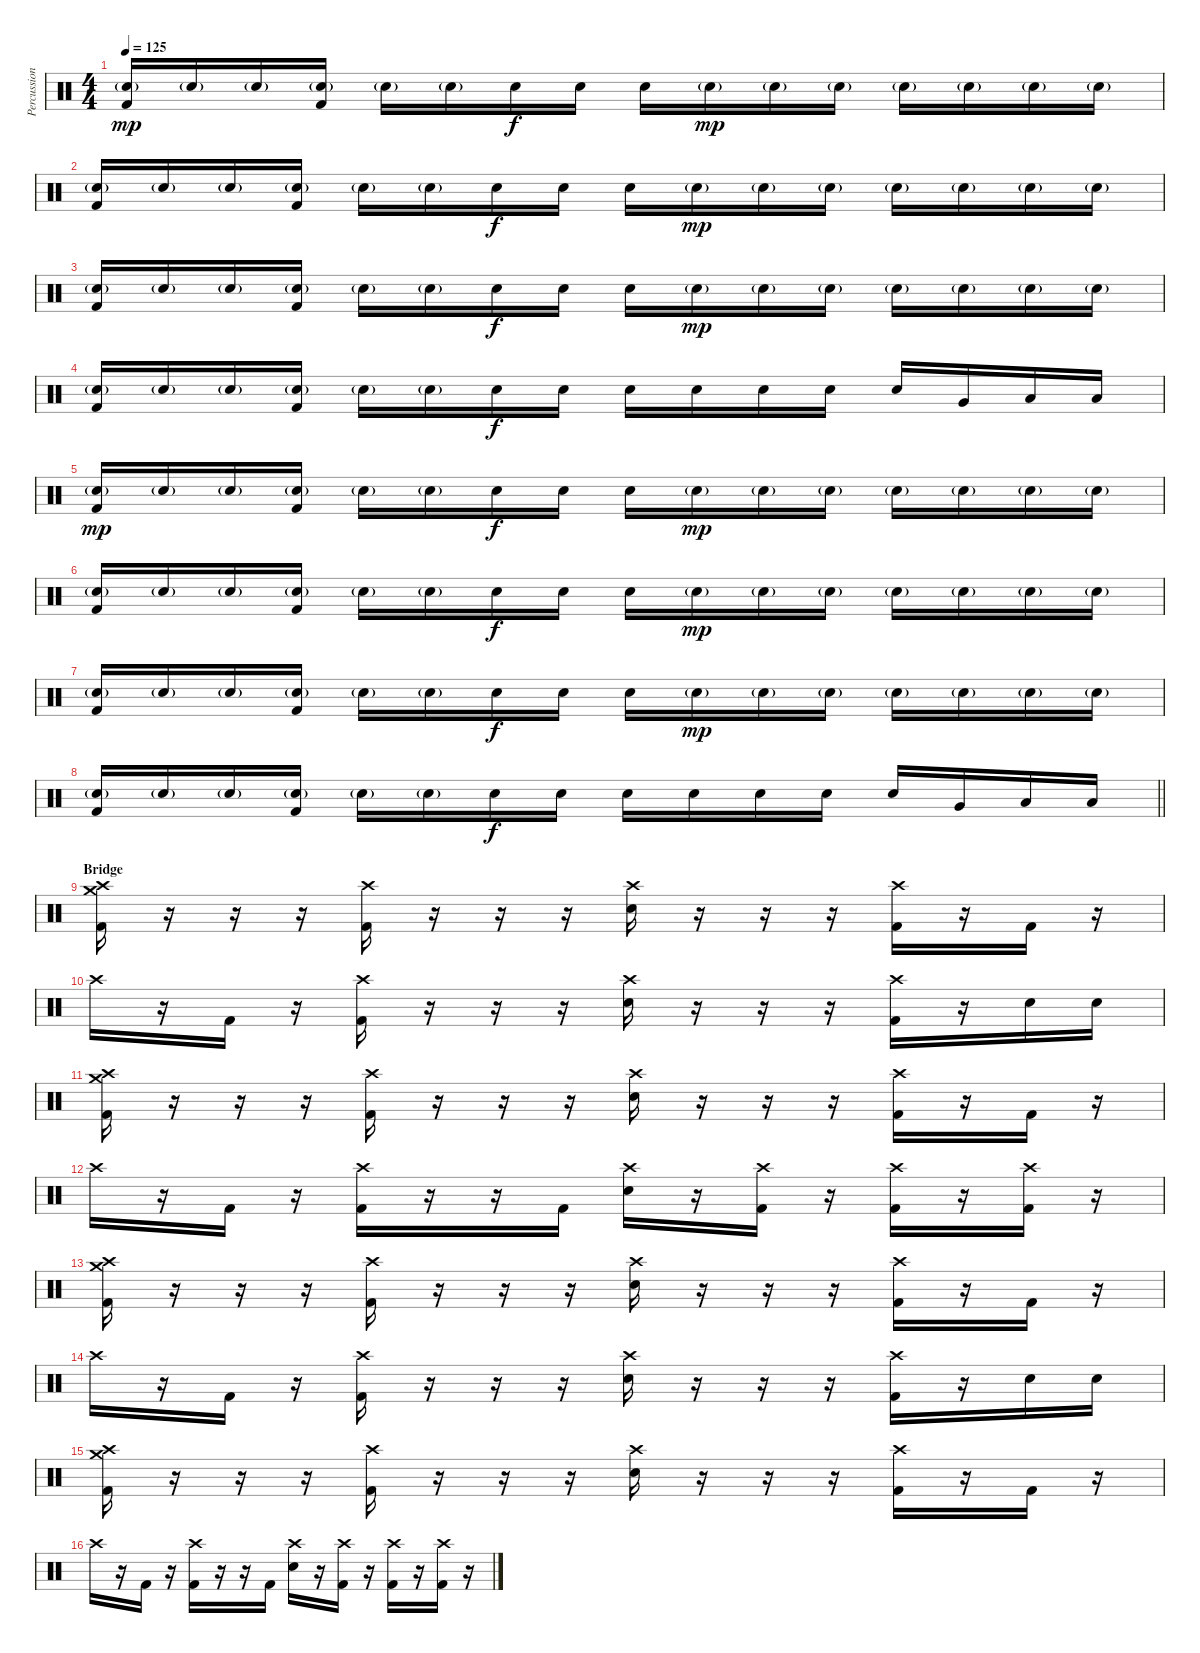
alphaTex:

\track ("Percussion" "Percussion") {instrument percussion}
\staff {score}
\articulation defaults
\ts (4 4)
\tempo 125
\clef neutral
\ks c
("Electric Snare (hit)"{g} "Kick (hit) 2").16{dy mp} "Electric Snare (hit)"{g}.16 "Electric Snare (hit)"{g}.16 ("Electric Snare (hit)"{g} "Kick (hit) 2").16 "Electric Snare (hit)"{g}.16 "Electric Snare (hit)"{g}.16 "Electric Snare (hit)".16{dy f} "Electric Snare (hit)".16 "Electric Snare (hit)".16 "Electric Snare (hit)"{g}.16{dy mp} "Electric Snare (hit)"{g}.16 "Electric Snare (hit)"{g}.16 "Electric Snare (hit)"{g}.16 "Electric Snare (hit)"{g}.16 "Electric Snare (hit)"{g}.16 "Electric Snare (hit)"{g}.16 |
("Electric Snare (hit)"{g} "Kick (hit) 2").16 "Electric Snare (hit)"{g}.16 "Electric Snare (hit)"{g}.16 ("Electric Snare (hit)"{g} "Kick (hit) 2").16 "Electric Snare (hit)"{g}.16 "Electric Snare (hit)"{g}.16 "Electric Snare (hit)".16{dy f} "Electric Snare (hit)".16 "Electric Snare (hit)".16 "Electric Snare (hit)"{g}.16{dy mp} "Electric Snare (hit)"{g}.16 "Electric Snare (hit)"{g}.16 "Electric Snare (hit)"{g}.16 "Electric Snare (hit)"{g}.16 "Electric Snare (hit)"{g}.16 "Electric Snare (hit)"{g}.16 |
("Electric Snare (hit)"{g} "Kick (hit) 2").16 "Electric Snare (hit)"{g}.16 "Electric Snare (hit)"{g}.16 ("Electric Snare (hit)"{g} "Kick (hit) 2").16 "Electric Snare (hit)"{g}.16 "Electric Snare (hit)"{g}.16 "Electric Snare (hit)".16{dy f} "Electric Snare (hit)".16 "Electric Snare (hit)".16 "Electric Snare (hit)"{g}.16{dy mp} "Electric Snare (hit)"{g}.16 "Electric Snare (hit)"{g}.16 "Electric Snare (hit)"{g}.16 "Electric Snare (hit)"{g}.16 "Electric Snare (hit)"{g}.16 "Electric Snare (hit)"{g}.16 |
("Electric Snare (hit)"{g} "Kick (hit) 2").16 "Electric Snare (hit)"{g}.16 "Electric Snare (hit)"{g}.16 ("Electric Snare (hit)"{g} "Kick (hit) 2").16 "Electric Snare (hit)"{g}.16 "Electric Snare (hit)"{g}.16 "Electric Snare (hit)".16{dy f} "Electric Snare (hit)".16 "Electric Snare (hit)".16 "Electric Snare (hit)".16 "Electric Snare (hit)".16 "Electric Snare (hit)".16 "Electric Snare (hit)".16 "Very Low Tom (hit)".16 "Low Floor Tom (hit)".16 "Low Floor Tom (hit)".16 |
("Electric Snare (hit)"{g} "Kick (hit) 2").16{dy mp} "Electric Snare (hit)"{g}.16 "Electric Snare (hit)"{g}.16 ("Electric Snare (hit)"{g} "Kick (hit) 2").16 "Electric Snare (hit)"{g}.16 "Electric Snare (hit)"{g}.16 "Electric Snare (hit)".16{dy f} "Electric Snare (hit)".16 "Electric Snare (hit)".16 "Electric Snare (hit)"{g}.16{dy mp} "Electric Snare (hit)"{g}.16 "Electric Snare (hit)"{g}.16 "Electric Snare (hit)"{g}.16 "Electric Snare (hit)"{g}.16 "Electric Snare (hit)"{g}.16 "Electric Snare (hit)"{g}.16 |
("Electric Snare (hit)"{g} "Kick (hit) 2").16 "Electric Snare (hit)"{g}.16 "Electric Snare (hit)"{g}.16 ("Electric Snare (hit)"{g} "Kick (hit) 2").16 "Electric Snare (hit)"{g}.16 "Electric Snare (hit)"{g}.16 "Electric Snare (hit)".16{dy f} "Electric Snare (hit)".16 "Electric Snare (hit)".16 "Electric Snare (hit)"{g}.16{dy mp} "Electric Snare (hit)"{g}.16 "Electric Snare (hit)"{g}.16 "Electric Snare (hit)"{g}.16 "Electric Snare (hit)"{g}.16 "Electric Snare (hit)"{g}.16 "Electric Snare (hit)"{g}.16 |
("Electric Snare (hit)"{g} "Kick (hit) 2").16 "Electric Snare (hit)"{g}.16 "Electric Snare (hit)"{g}.16 ("Electric Snare (hit)"{g} "Kick (hit) 2").16 "Electric Snare (hit)"{g}.16 "Electric Snare (hit)"{g}.16 "Electric Snare (hit)".16{dy f} "Electric Snare (hit)".16 "Electric Snare (hit)".16 "Electric Snare (hit)"{g}.16{dy mp} "Electric Snare (hit)"{g}.16 "Electric Snare (hit)"{g}.16 "Electric Snare (hit)"{g}.16 "Electric Snare (hit)"{g}.16 "Electric Snare (hit)"{g}.16 "Electric Snare (hit)"{g}.16 |
\barLineRight lightlight
("Electric Snare (hit)"{g} "Kick (hit) 2").16 "Electric Snare (hit)"{g}.16 "Electric Snare (hit)"{g}.16 ("Electric Snare (hit)"{g} "Kick (hit) 2").16 "Electric Snare (hit)"{g}.16 "Electric Snare (hit)"{g}.16 "Electric Snare (hit)".16{dy f} "Electric Snare (hit)".16 "Electric Snare (hit)".16 "Electric Snare (hit)".16 "Electric Snare (hit)".16 "Electric Snare (hit)".16 "Electric Snare (hit)".16 "Very Low Tom (hit)".16 "Low Floor Tom (hit)".16 "Low Floor Tom (hit)".16 |
\section ("" "Bridge")
("Crash medium (hit)" "Crash high (hit)" "Kick (hit) 2").16 r.16 r.16 r.16 ("Crash high (hit)" "Kick (hit) 2").16 r.16 r.16 r.16 ("Crash high (hit)" "Electric Snare (hit)").16 r.16 r.16 r.16 ("Crash high (hit)" "Kick (hit) 2").16 r.16 "Kick (hit) 2".16 r.16 |
"Crash high (hit)".16 r.16 "Kick (hit) 2".16 r.16 ("Crash high (hit)" "Kick (hit) 2").16 r.16 r.16 r.16 ("Crash high (hit)" "Electric Snare (hit)").16 r.16 r.16 r.16 ("Crash high (hit)" "Kick (hit) 2").16 r.16 "Electric Snare (hit)".16 "Electric Snare (hit)".16 |
("Crash medium (hit)" "Crash high (hit)" "Kick (hit) 2").16 r.16 r.16 r.16 ("Crash high (hit)" "Kick (hit) 2").16 r.16 r.16 r.16 ("Crash high (hit)" "Electric Snare (hit)").16 r.16 r.16 r.16 ("Crash high (hit)" "Kick (hit) 2").16 r.16 "Kick (hit) 2".16 r.16 |
"Crash high (hit)".16 r.16 "Kick (hit) 2".16 r.16 ("Crash high (hit)" "Kick (hit) 2").16 r.16 r.16 "Kick (hit) 2".16 ("Crash high (hit)" "Electric Snare (hit)").16 r.16 ("Crash high (hit)" "Kick (hit) 2").16 r.16 ("Crash high (hit)" "Kick (hit) 2").16 r.16 ("Crash high (hit)" "Kick (hit) 2").16 r.16 |
("Crash medium (hit)" "Crash high (hit)" "Kick (hit) 2").16 r.16 r.16 r.16 ("Crash high (hit)" "Kick (hit) 2").16 r.16 r.16 r.16 ("Crash high (hit)" "Electric Snare (hit)").16 r.16 r.16 r.16 ("Crash high (hit)" "Kick (hit) 2").16 r.16 "Kick (hit) 2".16 r.16 |
"Crash high (hit)".16 r.16 "Kick (hit) 2".16 r.16 ("Crash high (hit)" "Kick (hit) 2").16 r.16 r.16 r.16 ("Crash high (hit)" "Electric Snare (hit)").16 r.16 r.16 r.16 ("Crash high (hit)" "Kick (hit) 2").16 r.16 "Electric Snare (hit)".16 "Electric Snare (hit)".16 |
("Crash medium (hit)" "Crash high (hit)" "Kick (hit) 2").16 r.16 r.16 r.16 ("Crash high (hit)" "Kick (hit) 2").16 r.16 r.16 r.16 ("Crash high (hit)" "Electric Snare (hit)").16 r.16 r.16 r.16 ("Crash high (hit)" "Kick (hit) 2").16 r.16 "Kick (hit) 2".16 r.16 |
"Crash high (hit)".16 r.16 "Kick (hit) 2".16 r.16 ("Crash high (hit)" "Kick (hit) 2").16 r.16 r.16 "Kick (hit) 2".16 ("Crash high (hit)" "Electric Snare (hit)").16 r.16 ("Crash high (hit)" "Kick (hit) 2").16 r.16 ("Crash high (hit)" "Kick (hit) 2").16 r.16 ("Crash high (hit)" "Kick (hit) 2").16 r.16
